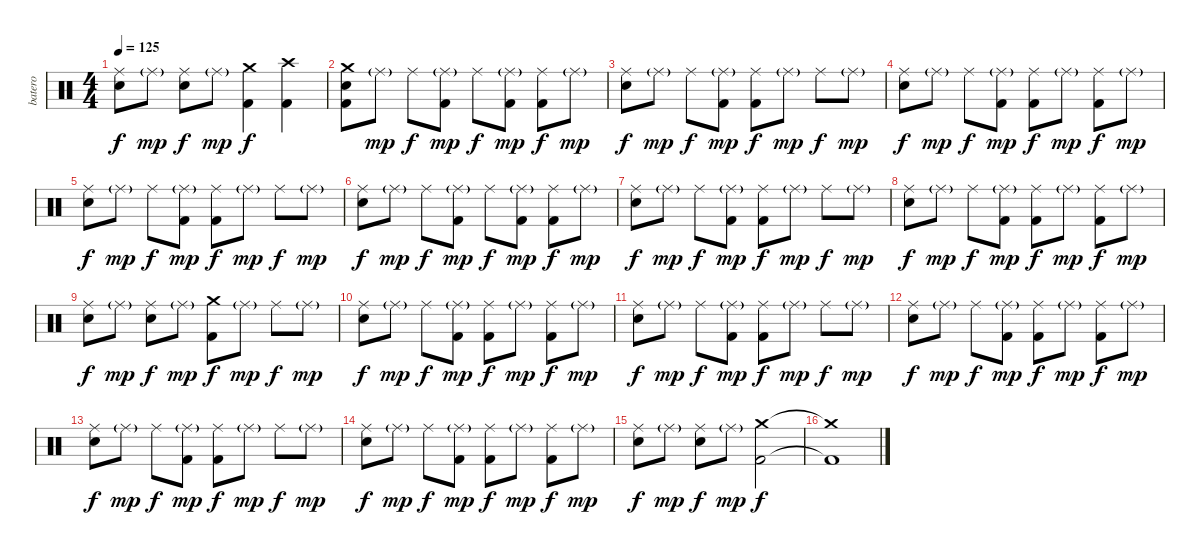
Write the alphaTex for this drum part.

\track ("batero" "batero") {instrument percussion}
\staff {score}
\articulation defaults
\ts (4 4)
\tempo 125
\clef neutral
\ks c
("Ride (middle)" "Snare (hit) 2").8{dy f} "Ride (middle)"{g}.8{dy mp} ("Ride (middle)" "Snare (hit) 2").8{dy f} "Ride (middle)"{g}.8{dy mp} ("Crash medium (hit)" "Kick (hit) 2").4{dy f} ("Crash high (hit)" "Kick (hit) 2").4 |
("Crash medium (hit)" "Snare (hit) 2" "Kick (hit) 2").8 "Ride (middle)"{g}.8{dy mp} "Ride (middle)".8{dy f} ("Ride (middle)"{g} "Kick (hit) 2").8{dy mp} "Ride (middle)".8{dy f} ("Ride (middle)"{g} "Kick (hit) 2").8{dy mp} ("Ride (middle)" "Kick (hit) 2").8{dy f} "Ride (middle)"{g}.8{dy mp} |
("Ride (middle)" "Snare (hit) 2").8{dy f} "Ride (middle)"{g}.8{dy mp} "Ride (middle)".8{dy f} ("Ride (middle)"{g} "Kick (hit) 2").8{dy mp} ("Ride (middle)" "Kick (hit) 2").8{dy f} "Ride (middle)"{g}.8{dy mp} "Ride (middle)".8{dy f} "Ride (middle)"{g}.8{dy mp} |
("Ride (middle)" "Snare (hit) 2").8{dy f} "Ride (middle)"{g}.8{dy mp} "Ride (middle)".8{dy f} ("Ride (middle)"{g} "Kick (hit) 2").8{dy mp} ("Ride (middle)" "Kick (hit) 2").8{dy f} "Ride (middle)"{g}.8{dy mp} ("Ride (middle)" "Kick (hit) 2").8{dy f} "Ride (middle)"{g}.8{dy mp} |
("Ride (middle)" "Snare (hit) 2").8{dy f} "Ride (middle)"{g}.8{dy mp} "Ride (middle)".8{dy f} ("Ride (middle)"{g} "Kick (hit) 2").8{dy mp} ("Ride (middle)" "Kick (hit) 2").8{dy f} "Ride (middle)"{g}.8{dy mp} "Ride (middle)".8{dy f} "Ride (middle)"{g}.8{dy mp} |
("Ride (middle)" "Snare (hit) 2").8{dy f} "Ride (middle)"{g}.8{dy mp} "Ride (middle)".8{dy f} ("Ride (middle)"{g} "Kick (hit) 2").8{dy mp} "Ride (middle)".8{dy f} ("Ride (middle)"{g} "Kick (hit) 2").8{dy mp} ("Ride (middle)" "Kick (hit) 2").8{dy f} "Ride (middle)"{g}.8{dy mp} |
("Ride (middle)" "Snare (hit) 2").8{dy f} "Ride (middle)"{g}.8{dy mp} "Ride (middle)".8{dy f} ("Ride (middle)"{g} "Kick (hit) 2").8{dy mp} ("Ride (middle)" "Kick (hit) 2").8{dy f} "Ride (middle)"{g}.8{dy mp} "Ride (middle)".8{dy f} "Ride (middle)"{g}.8{dy mp} |
("Ride (middle)" "Snare (hit) 2").8{dy f} "Ride (middle)"{g}.8{dy mp} "Ride (middle)".8{dy f} ("Ride (middle)"{g} "Kick (hit) 2").8{dy mp} ("Ride (middle)" "Kick (hit) 2").8{dy f} "Ride (middle)"{g}.8{dy mp} ("Ride (middle)" "Kick (hit) 2").8{dy f} "Ride (middle)"{g}.8{dy mp} |
("Ride (middle)" "Snare (hit) 2").8{dy f} "Ride (middle)"{g}.8{dy mp} ("Ride (middle)" "Snare (hit) 2").8{dy f} "Ride (middle)"{g}.8{dy mp} ("Crash medium (hit)" "Kick (hit) 2").8{dy f} "Ride (middle)"{g}.8{dy mp} "Ride (middle)".8{dy f} "Ride (middle)"{g}.8{dy mp} |
("Ride (middle)" "Snare (hit) 2").8{dy f} "Ride (middle)"{g}.8{dy mp} "Ride (middle)".8{dy f} ("Ride (middle)"{g} "Kick (hit) 2").8{dy mp} ("Ride (middle)" "Kick (hit) 2").8{dy f} "Ride (middle)"{g}.8{dy mp} ("Ride (middle)" "Kick (hit) 2").8{dy f} "Ride (middle)"{g}.8{dy mp} |
("Ride (middle)" "Snare (hit) 2").8{dy f} "Ride (middle)"{g}.8{dy mp} "Ride (middle)".8{dy f} ("Ride (middle)"{g} "Kick (hit) 2").8{dy mp} ("Ride (middle)" "Kick (hit) 2").8{dy f} "Ride (middle)"{g}.8{dy mp} "Ride (middle)".8{dy f} "Ride (middle)"{g}.8{dy mp} |
("Ride (middle)" "Snare (hit) 2").8{dy f} "Ride (middle)"{g}.8{dy mp} "Ride (middle)".8{dy f} ("Ride (middle)"{g} "Kick (hit) 2").8{dy mp} ("Ride (middle)" "Kick (hit) 2").8{dy f} "Ride (middle)"{g}.8{dy mp} ("Ride (middle)" "Kick (hit) 2").8{dy f} "Ride (middle)"{g}.8{dy mp} |
("Ride (middle)" "Snare (hit) 2").8{dy f} "Ride (middle)"{g}.8{dy mp} "Ride (middle)".8{dy f} ("Ride (middle)"{g} "Kick (hit) 2").8{dy mp} ("Ride (middle)" "Kick (hit) 2").8{dy f} "Ride (middle)"{g}.8{dy mp} "Ride (middle)".8{dy f} "Ride (middle)"{g}.8{dy mp} |
("Ride (middle)" "Snare (hit) 2").8{dy f} "Ride (middle)"{g}.8{dy mp} "Ride (middle)".8{dy f} ("Ride (middle)"{g} "Kick (hit) 2").8{dy mp} ("Ride (middle)" "Kick (hit) 2").8{dy f} "Ride (middle)"{g}.8{dy mp} ("Ride (middle)" "Kick (hit) 2").8{dy f} "Ride (middle)"{g}.8{dy mp} |
("Ride (middle)" "Snare (hit) 2").8{dy f} "Ride (middle)"{g}.8{dy mp} ("Ride (middle)" "Snare (hit) 2").8{dy f} "Ride (middle)"{g}.8{dy mp} ("Crash medium (hit)" "Kick (hit) 2").2{dy f} |
("Crash medium (hit)"{t} "Kick (hit) 2"{t}).1
